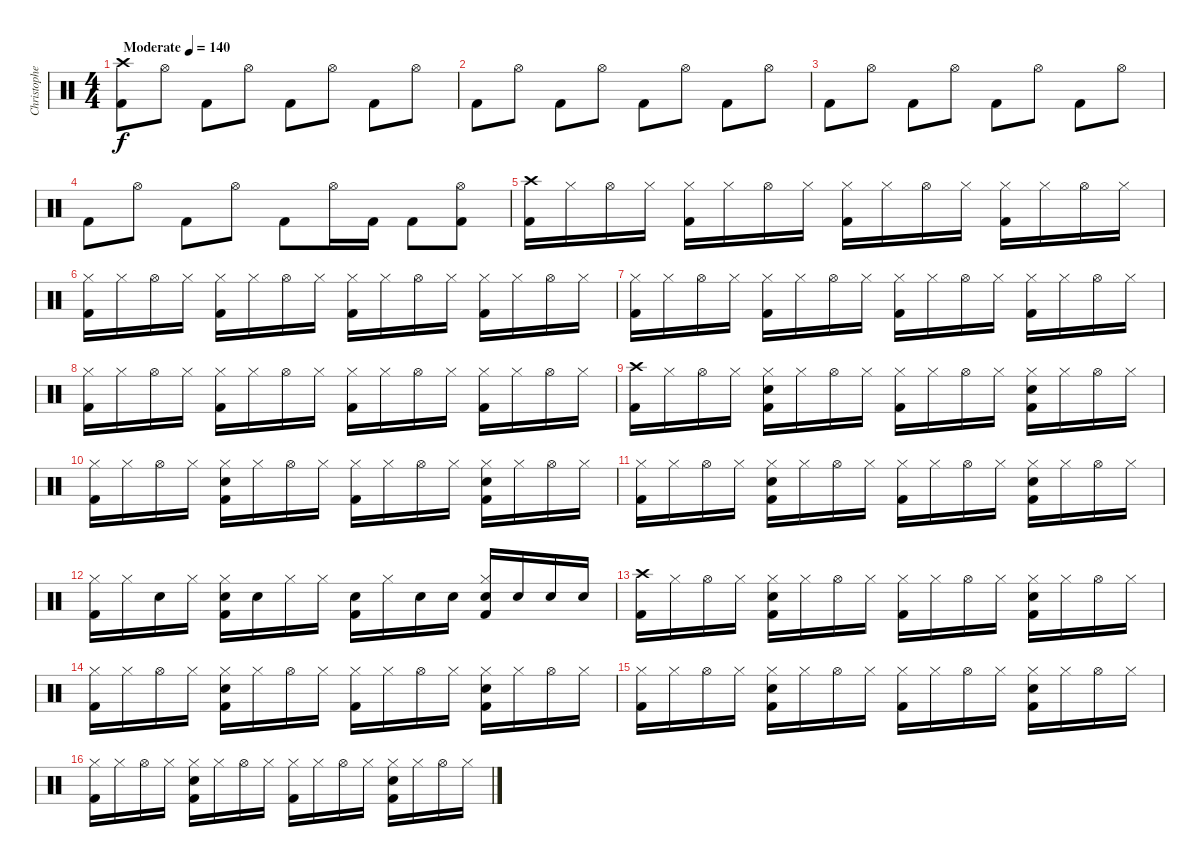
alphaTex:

\track ("Christopher Lawrence " "Christophe") {instrument percussion}
\staff {score}
\articulation defaults
\ts (4 4)
\tempo (140 "Moderate")
\clef neutral
\ks c
("Crash high (hit)" "Kick (hit) 2").8{dy f} "Hi-Hat (open)".8 "Kick (hit) 2".8 "Hi-Hat (open)".8 "Kick (hit) 2".8 "Hi-Hat (open)".8 "Kick (hit) 2".8 "Hi-Hat (open)".8 |
"Kick (hit) 2".8 "Hi-Hat (open)".8 "Kick (hit) 2".8 "Hi-Hat (open)".8 "Kick (hit) 2".8 "Hi-Hat (open)".8 "Kick (hit) 2".8 "Hi-Hat (open)".8 |
"Kick (hit) 2".8 "Hi-Hat (open)".8 "Kick (hit) 2".8 "Hi-Hat (open)".8 "Kick (hit) 2".8 "Hi-Hat (open)".8 "Kick (hit) 2".8 "Hi-Hat (open)".8 |
"Kick (hit) 2".8 "Hi-Hat (open)".8 "Kick (hit) 2".8 "Hi-Hat (open)".8 "Kick (hit) 2".8 "Hi-Hat (open)".16 "Kick (hit) 2".16 "Kick (hit) 2".8 ("Hi-Hat (open)" "Kick (hit) 2").8 |
("Crash high (hit)" "Kick (hit) 2").16 "Hi-Hat (closed)".16 "Hi-Hat (open)".16 "Hi-Hat (closed)".16 ("Hi-Hat (closed)" "Kick (hit) 2").16 "Hi-Hat (closed)".16 "Hi-Hat (open)".16 "Hi-Hat (closed)".16 ("Hi-Hat (closed)" "Kick (hit) 2").16 "Hi-Hat (closed)".16 "Hi-Hat (open)".16 "Hi-Hat (closed)".16 ("Hi-Hat (closed)" "Kick (hit) 2").16 "Hi-Hat (closed)".16 "Hi-Hat (open)".16 "Hi-Hat (closed)".16 |
("Hi-Hat (closed)" "Kick (hit) 2").16 "Hi-Hat (closed)".16 "Hi-Hat (open)".16 "Hi-Hat (closed)".16 ("Hi-Hat (closed)" "Kick (hit) 2").16 "Hi-Hat (closed)".16 "Hi-Hat (open)".16 "Hi-Hat (closed)".16 ("Hi-Hat (closed)" "Kick (hit) 2").16 "Hi-Hat (closed)".16 "Hi-Hat (open)".16 "Hi-Hat (closed)".16 ("Hi-Hat (closed)" "Kick (hit) 2").16 "Hi-Hat (closed)".16 "Hi-Hat (open)".16 "Hi-Hat (closed)".16 |
("Hi-Hat (closed)" "Kick (hit) 2").16 "Hi-Hat (closed)".16 "Hi-Hat (open)".16 "Hi-Hat (closed)".16 ("Hi-Hat (closed)" "Kick (hit) 2").16 "Hi-Hat (closed)".16 "Hi-Hat (open)".16 "Hi-Hat (closed)".16 ("Hi-Hat (closed)" "Kick (hit) 2").16 "Hi-Hat (closed)".16 "Hi-Hat (open)".16 "Hi-Hat (closed)".16 ("Hi-Hat (closed)" "Kick (hit) 2").16 "Hi-Hat (closed)".16 "Hi-Hat (open)".16 "Hi-Hat (closed)".16 |
("Hi-Hat (closed)" "Kick (hit) 2").16 "Hi-Hat (closed)".16 "Hi-Hat (open)".16 "Hi-Hat (closed)".16 ("Hi-Hat (closed)" "Kick (hit) 2").16 "Hi-Hat (closed)".16 "Hi-Hat (open)".16 "Hi-Hat (closed)".16 ("Hi-Hat (closed)" "Kick (hit) 2").16 "Hi-Hat (closed)".16 "Hi-Hat (open)".16 "Hi-Hat (closed)".16 ("Hi-Hat (closed)" "Kick (hit) 2").16 "Hi-Hat (closed)".16 "Hi-Hat (open)".16 "Hi-Hat (closed)".16 |
("Crash high (hit)" "Kick (hit) 2").16 "Hi-Hat (closed)".16 "Hi-Hat (open)".16 "Hi-Hat (closed)".16 ("Hi-Hat (closed)" "Hand Clap (hit)" "Kick (hit) 2").16 "Hi-Hat (closed)".16 "Hi-Hat (open)".16 "Hi-Hat (closed)".16 ("Hi-Hat (closed)" "Kick (hit) 2").16 "Hi-Hat (closed)".16 "Hi-Hat (open)".16 "Hi-Hat (closed)".16 ("Hi-Hat (closed)" "Hand Clap (hit)" "Kick (hit) 2").16 "Hi-Hat (closed)".16 "Hi-Hat (open)".16 "Hi-Hat (closed)".16 |
("Hi-Hat (closed)" "Kick (hit) 2").16 "Hi-Hat (closed)".16 "Hi-Hat (open)".16 "Hi-Hat (closed)".16 ("Hi-Hat (closed)" "Hand Clap (hit)" "Kick (hit) 2").16 "Hi-Hat (closed)".16 "Hi-Hat (open)".16 "Hi-Hat (closed)".16 ("Hi-Hat (closed)" "Kick (hit) 2").16 "Hi-Hat (closed)".16 "Hi-Hat (open)".16 "Hi-Hat (closed)".16 ("Hi-Hat (closed)" "Hand Clap (hit)" "Kick (hit) 2").16 "Hi-Hat (closed)".16 "Hi-Hat (open)".16 "Hi-Hat (closed)".16 |
("Hi-Hat (closed)" "Kick (hit) 2").16 "Hi-Hat (closed)".16 "Hi-Hat (open)".16 "Hi-Hat (closed)".16 ("Hi-Hat (closed)" "Hand Clap (hit)" "Kick (hit) 2").16 "Hi-Hat (closed)".16 "Hi-Hat (open)".16 "Hi-Hat (closed)".16 ("Hi-Hat (closed)" "Kick (hit) 2").16 "Hi-Hat (closed)".16 "Hi-Hat (open)".16 "Hi-Hat (closed)".16 ("Hi-Hat (closed)" "Hand Clap (hit)" "Kick (hit) 2").16 "Hi-Hat (closed)".16 "Hi-Hat (open)".16 "Hi-Hat (closed)".16 |
("Hi-Hat (closed)" "Kick (hit) 2").16 "Hi-Hat (closed)".16 "Snare (hit) 2".16 "Hi-Hat (closed)".16 ("Hand Clap (hit)" "Hi-Hat (closed)" "Kick (hit) 2").16 "Snare (hit) 2".16 "Hi-Hat (closed)".16 "Hi-Hat (closed)".16 ("Snare (hit) 2" "Kick (hit) 2").16 "Hi-Hat (closed)".16 "Snare (hit) 2".16 "Snare (hit) 2".16 ("Hand Clap (hit)" "Hi-Hat (closed)" "Kick (hit) 2").16 "Snare (hit) 2".16 "Snare (hit) 2".16 "Snare (hit) 2".16 |
("Crash high (hit)" "Kick (hit) 2").16 "Hi-Hat (closed)".16 "Hi-Hat (open)".16 "Hi-Hat (closed)".16 ("Hi-Hat (closed)" "Hand Clap (hit)" "Kick (hit) 2").16 "Hi-Hat (closed)".16 "Hi-Hat (open)".16 "Hi-Hat (closed)".16 ("Hi-Hat (closed)" "Kick (hit) 2").16 "Hi-Hat (closed)".16 "Hi-Hat (open)".16 "Hi-Hat (closed)".16 ("Hi-Hat (closed)" "Hand Clap (hit)" "Kick (hit) 2").16 "Hi-Hat (closed)".16 "Hi-Hat (open)".16 "Hi-Hat (closed)".16 |
("Hi-Hat (closed)" "Kick (hit) 2").16 "Hi-Hat (closed)".16 "Hi-Hat (open)".16 "Hi-Hat (closed)".16 ("Hi-Hat (closed)" "Hand Clap (hit)" "Kick (hit) 2").16 "Hi-Hat (closed)".16 "Hi-Hat (open)".16 "Hi-Hat (closed)".16 ("Hi-Hat (closed)" "Kick (hit) 2").16 "Hi-Hat (closed)".16 "Hi-Hat (open)".16 "Hi-Hat (closed)".16 ("Hi-Hat (closed)" "Hand Clap (hit)" "Kick (hit) 2").16 "Hi-Hat (closed)".16 "Hi-Hat (open)".16 "Hi-Hat (closed)".16 |
("Hi-Hat (closed)" "Kick (hit) 2").16 "Hi-Hat (closed)".16 "Hi-Hat (open)".16 "Hi-Hat (closed)".16 ("Hi-Hat (closed)" "Hand Clap (hit)" "Kick (hit) 2").16 "Hi-Hat (closed)".16 "Hi-Hat (open)".16 "Hi-Hat (closed)".16 ("Hi-Hat (closed)" "Kick (hit) 2").16 "Hi-Hat (closed)".16 "Hi-Hat (open)".16 "Hi-Hat (closed)".16 ("Hi-Hat (closed)" "Hand Clap (hit)" "Kick (hit) 2").16 "Hi-Hat (closed)".16 "Hi-Hat (open)".16 "Hi-Hat (closed)".16 |
("Hi-Hat (closed)" "Kick (hit) 2").16 "Hi-Hat (closed)".16 "Hi-Hat (open)".16 "Hi-Hat (closed)".16 ("Hi-Hat (closed)" "Hand Clap (hit)" "Kick (hit) 2").16 "Hi-Hat (closed)".16 "Hi-Hat (open)".16 "Hi-Hat (closed)".16 ("Hi-Hat (closed)" "Kick (hit) 2").16 "Hi-Hat (closed)".16 "Hi-Hat (open)".16 "Hi-Hat (closed)".16 ("Hi-Hat (closed)" "Hand Clap (hit)" "Kick (hit) 2").16 "Hi-Hat (closed)".16 "Hi-Hat (open)".16 "Hi-Hat (closed)".16
